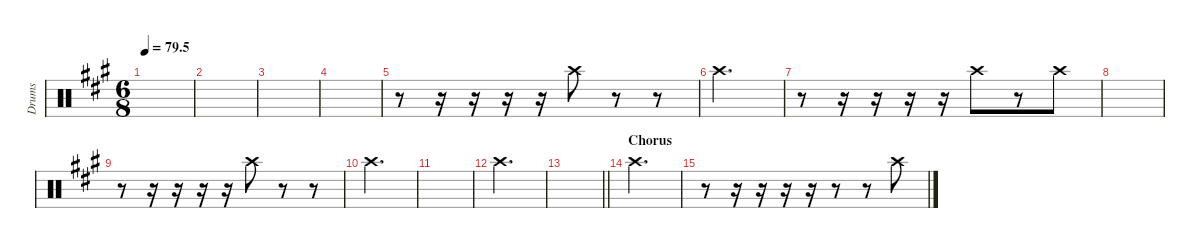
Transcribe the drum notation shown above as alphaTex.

\defaultSystemsLayout 4
\hideDynamics
\bracketExtendMode nobrackets
\otherSystemsTrackNameOrientation horizontal
\track ("Left crash" "Drums") {instrument percussion}
\staff {score}
\articulation defaults
\ts (6 8)
\tempo
79.5
\accidentals auto
\clef neutral
\ottava regular
\simile none
\scale
0.333333
\ks a
|
\scale
0.333333 |
\scale
0.333333 |
\scale
0.333333 |
\scale
0.333333 r.8 r.16 r.16 r.16 r.16 "Crash high (hit)"{acc forcenatural}.8 r.8 r.8 |
\scale
0.333333 "Crash high (hit)"{acc forcenatural}.2{d} |
\scale
0.333333 r.8 r.16 r.16 r.16 r.16 "Crash high (hit)"{acc forcenatural}.8 r.8 "Crash high (hit)"{acc forcenatural}.8 |
\scale
0.333333 |
\scale
0.333333 r.8 r.16 r.16 r.16 r.16 "Crash high (hit)"{acc forcenatural}.8 r.8 r.8 |
\scale
0.333333 "Crash high (hit)"{acc forcenatural}.2{d} |
\scale
0.333333 |
\scale
0.333333 "Crash high (hit)"{acc forcenatural}.2{d} |
\scale
0.333333
\barLineRight lightlight
|
\section ("" "Chorus")
\scale
0.333333 "Crash high (hit)"{acc forcenatural}.2{d} |
\scale
0.333333 r.8 r.16 r.16 r.16 r.16 r.8 r.8 "Crash high (hit)"{acc forcenatural}.8 |
\scale
0.333333
